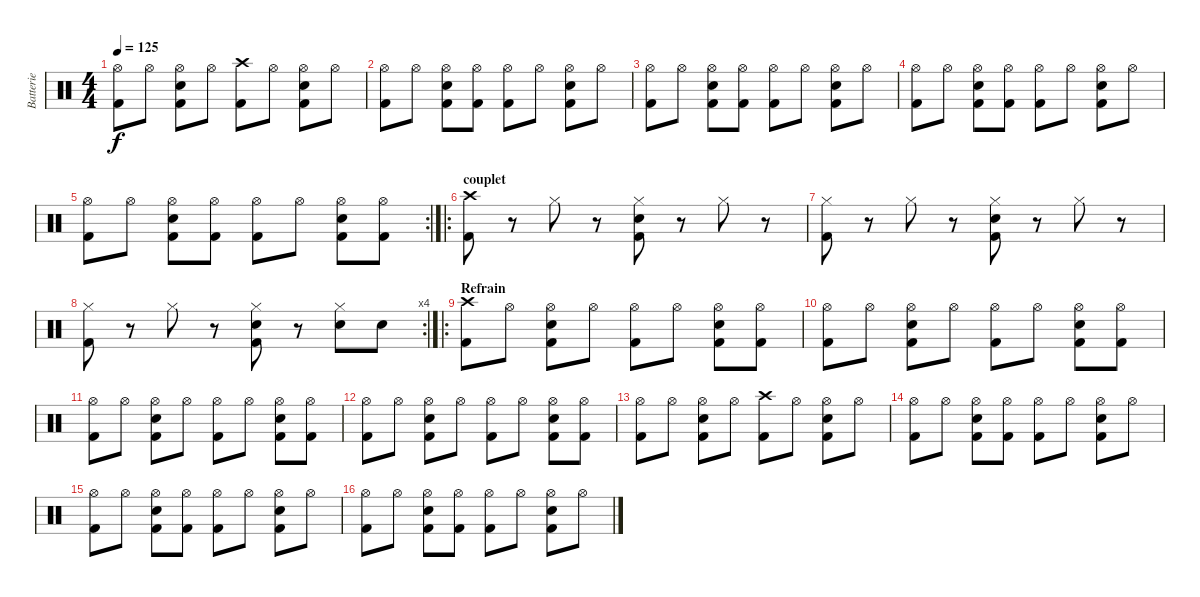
\track ("Batterie" "Batterie") {instrument percussion}
\staff {score}
\articulation defaults
\ts (4 4)
\tempo 125
\clef neutral
\ks c
("Hi-Hat (open)" "Kick (hit) 2").8{dy f} "Hi-Hat (open)".8 ("Hi-Hat (open)" "Kick (hit) 2" "Electric Snare (hit)").8 "Hi-Hat (open)".8 ("Kick (hit) 2" "Crash high (hit)").8 "Hi-Hat (open)".8 ("Hi-Hat (open)" "Kick (hit) 2" "Electric Snare (hit)").8 "Hi-Hat (open)".8 |
("Hi-Hat (open)" "Kick (hit) 2").8 "Hi-Hat (open)".8 ("Hi-Hat (open)" "Kick (hit) 2" "Electric Snare (hit)").8 ("Hi-Hat (open)" "Kick (hit) 2").8 ("Hi-Hat (open)" "Kick (hit) 2").8 "Hi-Hat (open)".8 ("Hi-Hat (open)" "Kick (hit) 2" "Electric Snare (hit)").8 "Hi-Hat (open)".8 |
("Hi-Hat (open)" "Kick (hit) 2").8 "Hi-Hat (open)".8 ("Hi-Hat (open)" "Kick (hit) 2" "Electric Snare (hit)").8 ("Hi-Hat (open)" "Kick (hit) 2").8 ("Hi-Hat (open)" "Kick (hit) 2").8 "Hi-Hat (open)".8 ("Hi-Hat (open)" "Kick (hit) 2" "Electric Snare (hit)").8 "Hi-Hat (open)".8 |
("Hi-Hat (open)" "Kick (hit) 2").8 "Hi-Hat (open)".8 ("Hi-Hat (open)" "Kick (hit) 2" "Electric Snare (hit)").8 ("Hi-Hat (open)" "Kick (hit) 2").8 ("Hi-Hat (open)" "Kick (hit) 2").8 "Hi-Hat (open)".8 ("Hi-Hat (open)" "Kick (hit) 2" "Electric Snare (hit)").8 "Hi-Hat (open)".8 |
\rc 2
("Hi-Hat (open)" "Kick (hit) 2").8 "Hi-Hat (open)".8 ("Hi-Hat (open)" "Kick (hit) 2" "Electric Snare (hit)").8 ("Hi-Hat (open)" "Kick (hit) 2").8 ("Hi-Hat (open)" "Kick (hit) 2").8 "Hi-Hat (open)".8 ("Hi-Hat (open)" "Kick (hit) 2" "Electric Snare (hit)").8 ("Hi-Hat (open)" "Kick (hit) 2").8 |
\ro
\section ("" "couplet")
("Kick (hit) 2" "Crash high (hit)").8 r.8 "Hi-Hat (closed)".8 r.8 ("Hi-Hat (closed)" "Kick (hit) 2" "Electric Snare (hit)").8 r.8 "Hi-Hat (closed)".8 r.8 |
("Hi-Hat (closed)" "Kick (hit) 2").8 r.8 "Hi-Hat (closed)".8 r.8 ("Hi-Hat (closed)" "Kick (hit) 2" "Electric Snare (hit)").8 r.8 "Hi-Hat (closed)".8 r.8 |
\rc 4
("Hi-Hat (closed)" "Kick (hit) 2").8 r.8 "Hi-Hat (closed)".8 r.8 ("Hi-Hat (closed)" "Kick (hit) 2" "Electric Snare (hit)").8 r.8 ("Hi-Hat (closed)" "Electric Snare (hit)").8 "Electric Snare (hit)".8 |
\ro
\section ("" "Refrain")
("Kick (hit) 2" "Crash high (hit)").8 "Hi-Hat (open)".8 ("Hi-Hat (open)" "Kick (hit) 2" "Electric Snare (hit)").8 "Hi-Hat (open)".8 ("Hi-Hat (open)" "Kick (hit) 2").8 "Hi-Hat (open)".8 ("Hi-Hat (open)" "Kick (hit) 2" "Electric Snare (hit)").8 ("Hi-Hat (open)" "Kick (hit) 2").8 |
("Hi-Hat (open)" "Kick (hit) 2").8 "Hi-Hat (open)".8 ("Hi-Hat (open)" "Kick (hit) 2" "Electric Snare (hit)").8 "Hi-Hat (open)".8 ("Hi-Hat (open)" "Kick (hit) 2").8 "Hi-Hat (open)".8 ("Hi-Hat (open)" "Kick (hit) 2" "Electric Snare (hit)").8 ("Hi-Hat (open)" "Kick (hit) 2").8 |
("Hi-Hat (open)" "Kick (hit) 2").8 "Hi-Hat (open)".8 ("Hi-Hat (open)" "Kick (hit) 2" "Electric Snare (hit)").8 "Hi-Hat (open)".8 ("Hi-Hat (open)" "Kick (hit) 2").8 "Hi-Hat (open)".8 ("Hi-Hat (open)" "Kick (hit) 2" "Electric Snare (hit)").8 ("Hi-Hat (open)" "Kick (hit) 2").8 |
("Hi-Hat (open)" "Kick (hit) 2").8 "Hi-Hat (open)".8 ("Hi-Hat (open)" "Kick (hit) 2" "Electric Snare (hit)").8 "Hi-Hat (open)".8 ("Hi-Hat (open)" "Kick (hit) 2").8 "Hi-Hat (open)".8 ("Hi-Hat (open)" "Kick (hit) 2" "Electric Snare (hit)").8 ("Hi-Hat (open)" "Kick (hit) 2").8 |
("Hi-Hat (open)" "Kick (hit) 2").8 "Hi-Hat (open)".8 ("Hi-Hat (open)" "Kick (hit) 2" "Electric Snare (hit)").8 "Hi-Hat (open)".8 ("Kick (hit) 2" "Crash high (hit)").8 "Hi-Hat (open)".8 ("Hi-Hat (open)" "Kick (hit) 2" "Electric Snare (hit)").8 "Hi-Hat (open)".8 |
("Hi-Hat (open)" "Kick (hit) 2").8 "Hi-Hat (open)".8 ("Hi-Hat (open)" "Kick (hit) 2" "Electric Snare (hit)").8 ("Hi-Hat (open)" "Kick (hit) 2").8 ("Hi-Hat (open)" "Kick (hit) 2").8 "Hi-Hat (open)".8 ("Hi-Hat (open)" "Kick (hit) 2" "Electric Snare (hit)").8 "Hi-Hat (open)".8 |
("Hi-Hat (open)" "Kick (hit) 2").8 "Hi-Hat (open)".8 ("Hi-Hat (open)" "Kick (hit) 2" "Electric Snare (hit)").8 ("Hi-Hat (open)" "Kick (hit) 2").8 ("Hi-Hat (open)" "Kick (hit) 2").8 "Hi-Hat (open)".8 ("Hi-Hat (open)" "Kick (hit) 2" "Electric Snare (hit)").8 "Hi-Hat (open)".8 |
("Hi-Hat (open)" "Kick (hit) 2").8 "Hi-Hat (open)".8 ("Hi-Hat (open)" "Kick (hit) 2" "Electric Snare (hit)").8 ("Hi-Hat (open)" "Kick (hit) 2").8 ("Hi-Hat (open)" "Kick (hit) 2").8 "Hi-Hat (open)".8 ("Hi-Hat (open)" "Kick (hit) 2" "Electric Snare (hit)").8 "Hi-Hat (open)".8
